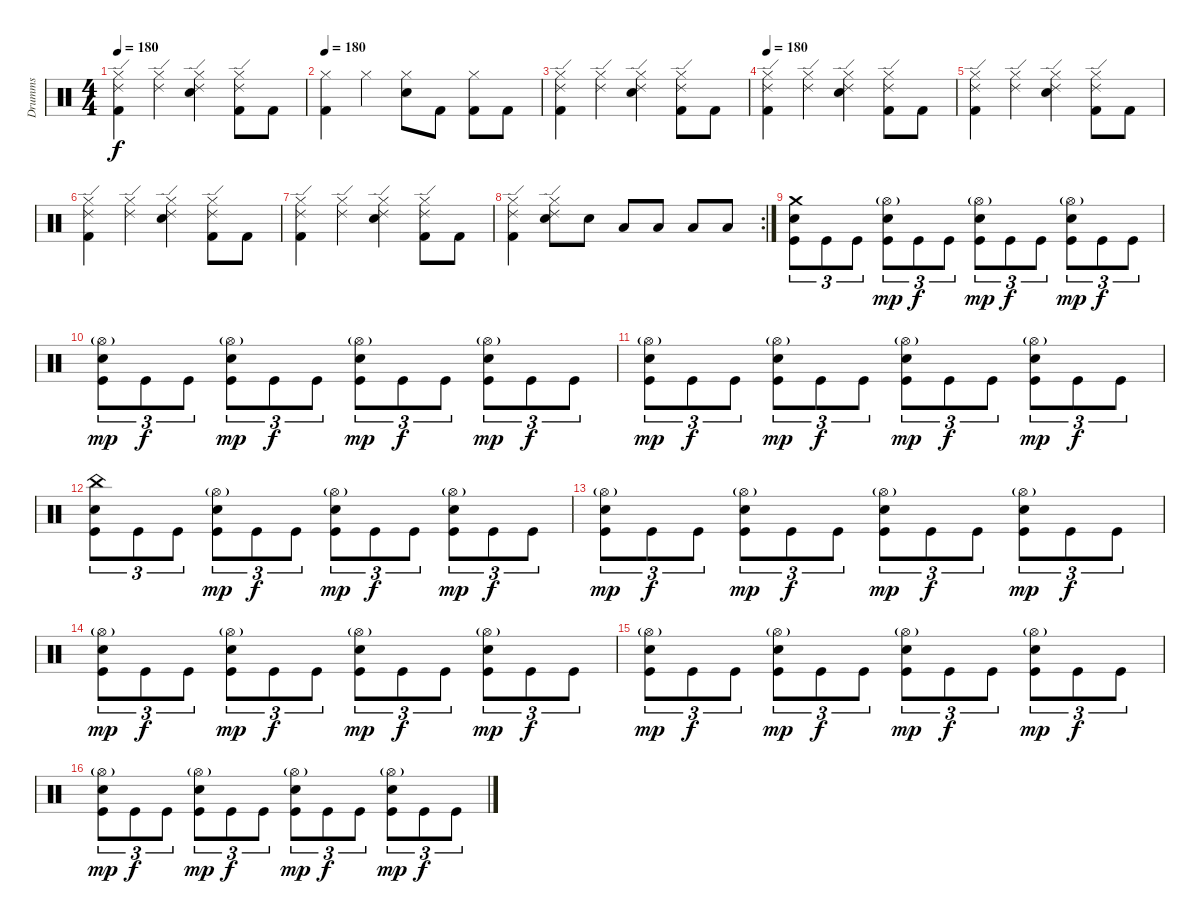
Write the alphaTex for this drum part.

\track ("Drumms" "Drumms") {instrument percussion}
\staff {score}
\articulation defaults
\ts (4 4)
\tempo 180
\clef neutral
\ks c
("Kick (hit) 2" "Ride (edge) 2" "Hi-Hat (closed)").4{dy f} ("Ride (edge) 2" "Hi-Hat (closed)").4 ("Snare (hit) 2" "Ride (edge) 2" "Hi-Hat (closed)").4 ("Kick (hit) 2" "Ride (edge) 2" "Hi-Hat (closed)").8 "Kick (hit) 2".8 |
\tempo 180
("Kick (hit) 2" "Hi-Hat (closed)").4 "Hi-Hat (closed)".4 ("Snare (hit) 2" "Hi-Hat (closed)").8 "Kick (hit) 2".8 ("Kick (hit) 2" "Hi-Hat (closed)").8 "Kick (hit) 2".8 |
("Kick (hit) 2" "Ride (edge) 2" "Hi-Hat (closed)").4 ("Ride (edge) 2" "Hi-Hat (closed)").4 ("Snare (hit) 2" "Ride (edge) 2" "Hi-Hat (closed)").4 ("Kick (hit) 2" "Ride (edge) 2" "Hi-Hat (closed)").8 "Kick (hit) 2".8 |
\tempo 180
("Kick (hit) 2" "Ride (edge) 2" "Hi-Hat (closed)").4 ("Ride (edge) 2" "Hi-Hat (closed)").4 ("Snare (hit) 2" "Ride (edge) 2" "Hi-Hat (closed)").4 ("Kick (hit) 2" "Ride (edge) 2" "Hi-Hat (closed)").8 "Kick (hit) 2".8 |
("Kick (hit) 2" "Ride (edge) 2" "Hi-Hat (closed)").4 ("Ride (edge) 2" "Hi-Hat (closed)").4 ("Snare (hit) 2" "Ride (edge) 2" "Hi-Hat (closed)").4 ("Kick (hit) 2" "Ride (edge) 2" "Hi-Hat (closed)").8 "Kick (hit) 2".8 |
("Kick (hit) 2" "Ride (edge) 2" "Hi-Hat (closed)").4 ("Ride (edge) 2" "Hi-Hat (closed)").4 ("Snare (hit) 2" "Ride (edge) 2" "Hi-Hat (closed)").4 ("Kick (hit) 2" "Ride (edge) 2" "Hi-Hat (closed)").8 "Kick (hit) 2".8 |
("Kick (hit) 2" "Ride (edge) 2" "Hi-Hat (closed)").4 ("Ride (edge) 2" "Hi-Hat (closed)").4 ("Snare (hit) 2" "Ride (edge) 2" "Hi-Hat (closed)").4 ("Kick (hit) 2" "Ride (edge) 2" "Hi-Hat (closed)").8 "Kick (hit) 2".8 |
\rc 2
("Kick (hit) 2" "Ride (edge) 2" "Hi-Hat (closed)").4 ("Snare (hit) 2" "Ride (edge) 2" "Hi-Hat (closed)").8 "Snare (hit) 2".8 "Low Tom (hit)".8 "Low Tom (hit)".8 "Low Floor Tom (hit)".8 "Low Floor Tom (hit)".8 |
("Kick (hit)" "Snare (hit) 2" "Crash medium (hit)").8{tu (3 2)} "Kick (hit)".8{tu (3 2)} "Kick (hit)".8{tu (3 2)} ("Kick (hit)" "Snare (hit) 2" "Hi-Hat (open)"{g}).8{tu (3 2) dy mp} "Kick (hit)".8{tu (3 2) dy f} "Kick (hit)".8{tu (3 2)} ("Kick (hit)" "Snare (hit) 2" "Hi-Hat (open)"{g}).8{tu (3 2) dy mp} "Kick (hit)".8{tu (3 2) dy f} "Kick (hit)".8{tu (3 2)} ("Kick (hit)" "Snare (hit) 2" "Hi-Hat (open)"{g}).8{tu (3 2) dy mp} "Kick (hit)".8{tu (3 2) dy f} "Kick (hit)".8{tu (3 2)} |
("Kick (hit)" "Snare (hit) 2" "Hi-Hat (open)"{g}).8{tu (3 2) dy mp} "Kick (hit)".8{tu (3 2) dy f} "Kick (hit)".8{tu (3 2)} ("Kick (hit)" "Snare (hit) 2" "Hi-Hat (open)"{g}).8{tu (3 2) dy mp} "Kick (hit)".8{tu (3 2) dy f} "Kick (hit)".8{tu (3 2)} ("Kick (hit)" "Snare (hit) 2" "Hi-Hat (open)"{g}).8{tu (3 2) dy mp} "Kick (hit)".8{tu (3 2) dy f} "Kick (hit)".8{tu (3 2)} ("Kick (hit)" "Snare (hit) 2" "Hi-Hat (open)"{g}).8{tu (3 2) dy mp} "Kick (hit)".8{tu (3 2) dy f} "Kick (hit)".8{tu (3 2)} |
("Kick (hit)" "Snare (hit) 2" "Hi-Hat (open)"{g}).8{tu (3 2) dy mp} "Kick (hit)".8{tu (3 2) dy f} "Kick (hit)".8{tu (3 2)} ("Kick (hit)" "Snare (hit) 2" "Hi-Hat (open)"{g}).8{tu (3 2) dy mp} "Kick (hit)".8{tu (3 2) dy f} "Kick (hit)".8{tu (3 2)} ("Kick (hit)" "Snare (hit) 2" "Hi-Hat (open)"{g}).8{tu (3 2) dy mp} "Kick (hit)".8{tu (3 2) dy f} "Kick (hit)".8{tu (3 2)} ("Kick (hit)" "Snare (hit) 2" "Hi-Hat (open)"{g}).8{tu (3 2) dy mp} "Kick (hit)".8{tu (3 2) dy f} "Kick (hit)".8{tu (3 2)} |
("Kick (hit)" "Snare (hit) 2" "China (hit)").8{tu (3 2)} "Kick (hit)".8{tu (3 2)} "Kick (hit)".8{tu (3 2)} ("Kick (hit)" "Snare (hit) 2" "Hi-Hat (open)"{g}).8{tu (3 2) dy mp} "Kick (hit)".8{tu (3 2) dy f} "Kick (hit)".8{tu (3 2)} ("Kick (hit)" "Snare (hit) 2" "Hi-Hat (open)"{g}).8{tu (3 2) dy mp} "Kick (hit)".8{tu (3 2) dy f} "Kick (hit)".8{tu (3 2)} ("Kick (hit)" "Snare (hit) 2" "Hi-Hat (open)"{g}).8{tu (3 2) dy mp} "Kick (hit)".8{tu (3 2) dy f} "Kick (hit)".8{tu (3 2)} |
("Kick (hit)" "Snare (hit) 2" "Hi-Hat (open)"{g}).8{tu (3 2) dy mp} "Kick (hit)".8{tu (3 2) dy f} "Kick (hit)".8{tu (3 2)} ("Kick (hit)" "Snare (hit) 2" "Hi-Hat (open)"{g}).8{tu (3 2) dy mp} "Kick (hit)".8{tu (3 2) dy f} "Kick (hit)".8{tu (3 2)} ("Kick (hit)" "Snare (hit) 2" "Hi-Hat (open)"{g}).8{tu (3 2) dy mp} "Kick (hit)".8{tu (3 2) dy f} "Kick (hit)".8{tu (3 2)} ("Kick (hit)" "Snare (hit) 2" "Hi-Hat (open)"{g}).8{tu (3 2) dy mp} "Kick (hit)".8{tu (3 2) dy f} "Kick (hit)".8{tu (3 2)} |
("Kick (hit)" "Snare (hit) 2" "Hi-Hat (open)"{g}).8{tu (3 2) dy mp} "Kick (hit)".8{tu (3 2) dy f} "Kick (hit)".8{tu (3 2)} ("Kick (hit)" "Snare (hit) 2" "Hi-Hat (open)"{g}).8{tu (3 2) dy mp} "Kick (hit)".8{tu (3 2) dy f} "Kick (hit)".8{tu (3 2)} ("Kick (hit)" "Snare (hit) 2" "Hi-Hat (open)"{g}).8{tu (3 2) dy mp} "Kick (hit)".8{tu (3 2) dy f} "Kick (hit)".8{tu (3 2)} ("Kick (hit)" "Snare (hit) 2" "Hi-Hat (open)"{g}).8{tu (3 2) dy mp} "Kick (hit)".8{tu (3 2) dy f} "Kick (hit)".8{tu (3 2)} |
("Kick (hit)" "Snare (hit) 2" "Hi-Hat (open)"{g}).8{tu (3 2) dy mp} "Kick (hit)".8{tu (3 2) dy f} "Kick (hit)".8{tu (3 2)} ("Kick (hit)" "Snare (hit) 2" "Hi-Hat (open)"{g}).8{tu (3 2) dy mp} "Kick (hit)".8{tu (3 2) dy f} "Kick (hit)".8{tu (3 2)} ("Kick (hit)" "Snare (hit) 2" "Hi-Hat (open)"{g}).8{tu (3 2) dy mp} "Kick (hit)".8{tu (3 2) dy f} "Kick (hit)".8{tu (3 2)} ("Kick (hit)" "Snare (hit) 2" "Hi-Hat (open)"{g}).8{tu (3 2) dy mp} "Kick (hit)".8{tu (3 2) dy f} "Kick (hit)".8{tu (3 2)} |
("Kick (hit)" "Snare (hit) 2" "Hi-Hat (open)"{g}).8{tu (3 2) dy mp} "Kick (hit)".8{tu (3 2) dy f} "Kick (hit)".8{tu (3 2)} ("Kick (hit)" "Snare (hit) 2" "Hi-Hat (open)"{g}).8{tu (3 2) dy mp} "Kick (hit)".8{tu (3 2) dy f} "Kick (hit)".8{tu (3 2)} ("Kick (hit)" "Snare (hit) 2" "Hi-Hat (open)"{g}).8{tu (3 2) dy mp} "Kick (hit)".8{tu (3 2) dy f} "Kick (hit)".8{tu (3 2)} ("Kick (hit)" "Snare (hit) 2" "Hi-Hat (open)"{g}).8{tu (3 2) dy mp} "Kick (hit)".8{tu (3 2) dy f} "Kick (hit)".8{tu (3 2)}
